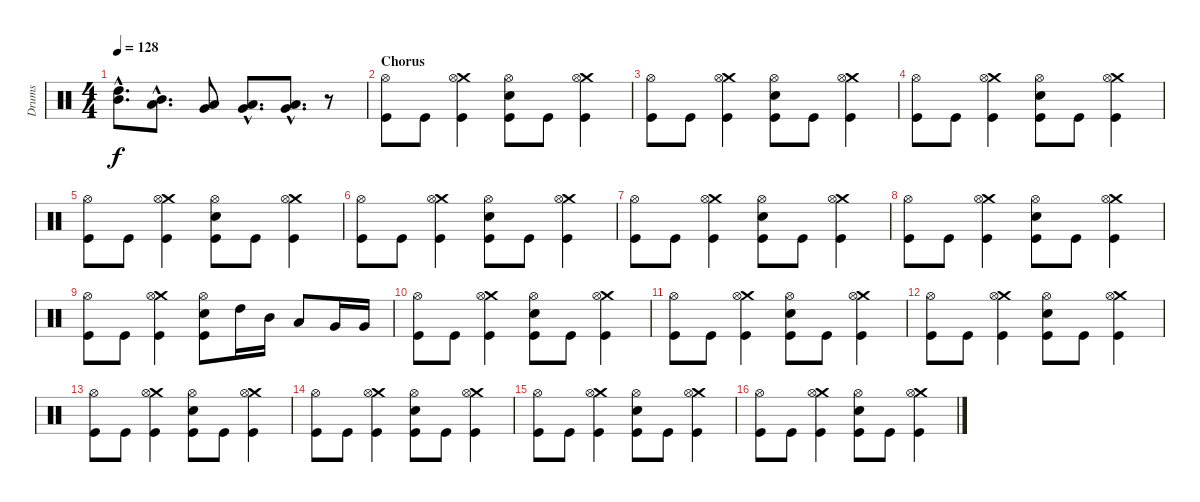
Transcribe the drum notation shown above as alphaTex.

\track ("Drums" "Drums") {instrument percussion}
\staff {score}
\articulation defaults
\ts (4 4)
\tempo 128
\clef neutral
\ks c
("High Tom (hit)"{hac} "Mid Tom (hit)"{hac}).8{d dy f} ("Mid Tom (hit)"{hac} "Low Tom (hit)"{hac}).8{d} ("Low Tom (hit)" "Very Low Tom (hit)").8 ("Very Low Tom (hit)"{hac} "Low Floor Tom (hit)"{hac}).8{d} ("Very Low Tom (hit)"{hac} "Low Floor Tom (hit)"{hac}).8{d} r.8 |
\section ("" "Chorus")
("Hi-Hat (open)" "Kick (hit)").8 "Kick (hit)".8 ("Crash medium (hit)" "Hi-Hat (open)" "Kick (hit)").4 ("Hi-Hat (open)" "Electric Snare (hit)" "Kick (hit)").8 "Kick (hit)".8 ("Crash medium (hit)" "Hi-Hat (open)" "Kick (hit)").4 |
("Hi-Hat (open)" "Kick (hit)").8 "Kick (hit)".8 ("Crash medium (hit)" "Hi-Hat (open)" "Kick (hit)").4 ("Hi-Hat (open)" "Electric Snare (hit)" "Kick (hit)").8 "Kick (hit)".8 ("Crash medium (hit)" "Hi-Hat (open)" "Kick (hit)").4 |
("Hi-Hat (open)" "Kick (hit)").8 "Kick (hit)".8 ("Crash medium (hit)" "Hi-Hat (open)" "Kick (hit)").4 ("Hi-Hat (open)" "Electric Snare (hit)" "Kick (hit)").8 "Kick (hit)".8 ("Crash medium (hit)" "Hi-Hat (open)" "Kick (hit)").4 |
("Hi-Hat (open)" "Kick (hit)").8 "Kick (hit)".8 ("Crash medium (hit)" "Hi-Hat (open)" "Kick (hit)").4 ("Hi-Hat (open)" "Electric Snare (hit)" "Kick (hit)").8 "Kick (hit)".8 ("Crash medium (hit)" "Hi-Hat (open)" "Kick (hit)").4 |
("Hi-Hat (open)" "Kick (hit)").8 "Kick (hit)".8 ("Crash medium (hit)" "Hi-Hat (open)" "Kick (hit)").4 ("Hi-Hat (open)" "Electric Snare (hit)" "Kick (hit)").8 "Kick (hit)".8 ("Crash medium (hit)" "Hi-Hat (open)" "Kick (hit)").4 |
("Hi-Hat (open)" "Kick (hit)").8 "Kick (hit)".8 ("Crash medium (hit)" "Hi-Hat (open)" "Kick (hit)").4 ("Hi-Hat (open)" "Electric Snare (hit)" "Kick (hit)").8 "Kick (hit)".8 ("Crash medium (hit)" "Hi-Hat (open)" "Kick (hit)").4 |
("Hi-Hat (open)" "Kick (hit)").8 "Kick (hit)".8 ("Crash medium (hit)" "Hi-Hat (open)" "Kick (hit)").4 ("Hi-Hat (open)" "Electric Snare (hit)" "Kick (hit)").8 "Kick (hit)".8 ("Crash medium (hit)" "Hi-Hat (open)" "Kick (hit)").4 |
("Hi-Hat (open)" "Kick (hit)").8 "Kick (hit)".8 ("Crash medium (hit)" "Hi-Hat (open)" "Kick (hit)").4 ("Hi-Hat (open)" "Electric Snare (hit)" "Kick (hit)").8 "High Tom (hit)".16 "Mid Tom (hit)".16 "Low Tom (hit)".8 "Very Low Tom (hit)".16 "Very Low Tom (hit)".16 |
("Hi-Hat (open)" "Kick (hit)").8 "Kick (hit)".8 ("Crash medium (hit)" "Hi-Hat (open)" "Kick (hit)").4 ("Hi-Hat (open)" "Electric Snare (hit)" "Kick (hit)").8 "Kick (hit)".8 ("Crash medium (hit)" "Hi-Hat (open)" "Kick (hit)").4 |
("Hi-Hat (open)" "Kick (hit)").8 "Kick (hit)".8 ("Crash medium (hit)" "Hi-Hat (open)" "Kick (hit)").4 ("Hi-Hat (open)" "Electric Snare (hit)" "Kick (hit)").8 "Kick (hit)".8 ("Crash medium (hit)" "Hi-Hat (open)" "Kick (hit)").4 |
("Hi-Hat (open)" "Kick (hit)").8 "Kick (hit)".8 ("Crash medium (hit)" "Hi-Hat (open)" "Kick (hit)").4 ("Hi-Hat (open)" "Electric Snare (hit)" "Kick (hit)").8 "Kick (hit)".8 ("Crash medium (hit)" "Hi-Hat (open)" "Kick (hit)").4 |
("Hi-Hat (open)" "Kick (hit)").8 "Kick (hit)".8 ("Crash medium (hit)" "Hi-Hat (open)" "Kick (hit)").4 ("Hi-Hat (open)" "Electric Snare (hit)" "Kick (hit)").8 "Kick (hit)".8 ("Crash medium (hit)" "Hi-Hat (open)" "Kick (hit)").4 |
("Hi-Hat (open)" "Kick (hit)").8 "Kick (hit)".8 ("Crash medium (hit)" "Hi-Hat (open)" "Kick (hit)").4 ("Hi-Hat (open)" "Electric Snare (hit)" "Kick (hit)").8 "Kick (hit)".8 ("Crash medium (hit)" "Hi-Hat (open)" "Kick (hit)").4 |
("Hi-Hat (open)" "Kick (hit)").8 "Kick (hit)".8 ("Crash medium (hit)" "Hi-Hat (open)" "Kick (hit)").4 ("Hi-Hat (open)" "Electric Snare (hit)" "Kick (hit)").8 "Kick (hit)".8 ("Crash medium (hit)" "Hi-Hat (open)" "Kick (hit)").4 |
("Hi-Hat (open)" "Kick (hit)").8 "Kick (hit)".8 ("Crash medium (hit)" "Hi-Hat (open)" "Kick (hit)").4 ("Hi-Hat (open)" "Electric Snare (hit)" "Kick (hit)").8 "Kick (hit)".8 ("Crash medium (hit)" "Hi-Hat (open)" "Kick (hit)").4
